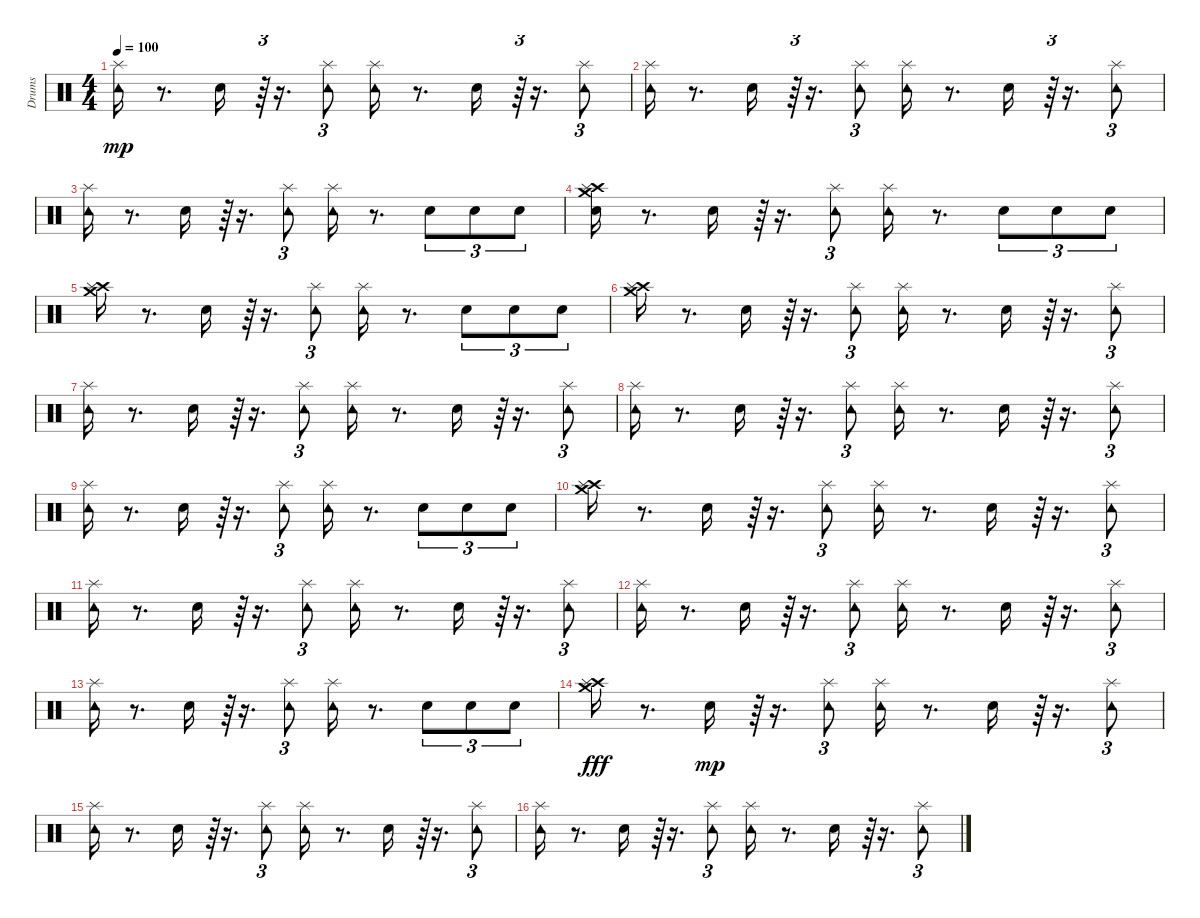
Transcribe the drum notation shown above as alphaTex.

\track ("Drums" "Drums") {instrument percussion}
\staff {score}
\articulation defaults
\ts (4 4)
\tempo 100
\clef neutral
\ks c
("Tambourine (hit)" "Splash (hit)").16{dy mp} r.8{d} "Snare (hit)".16 r.64{tu (3 2)} r.16{d} ("Splash (hit)" "Tambourine (hit)").8{tu (3 2)} ("Splash (hit)" "Tambourine (hit)").16 r.8{d} "Snare (hit)".16 r.64{tu (3 2)} r.16{d} ("Splash (hit)" "Tambourine (hit)").8{tu (3 2)} |
("Tambourine (hit)" "Splash (hit)").16 r.8{d} "Snare (hit)".16 r.64{tu (3 2)} r.16{d} ("Tambourine (hit)" "Splash (hit)").8{tu (3 2)} ("Splash (hit)" "Tambourine (hit)").16 r.8{d} "Snare (hit)".16 r.64{tu (3 2)} r.16{d} ("Splash (hit)" "Tambourine (hit)").8{tu (3 2)} |
("Tambourine (hit)" "Splash (hit)").16 r.8{d} "Snare (hit)".16 r.64{tu (3 2)} r.16{d} ("Splash (hit)" "Tambourine (hit)").8{tu (3 2)} ("Tambourine (hit)" "Splash (hit)").16 r.8{d} "Snare (hit)".8{tu (3 2)} "Snare (hit)".8{tu (3 2)} "Snare (hit)".8{tu (3 2)} |
("Crash high (hit)" "Crash medium (hit)" "Snare (hit)" "Splash (hit)").16 r.8{d} "Snare (hit)".16 r.64{tu (3 2)} r.16{d} ("Splash (hit)" "Tambourine (hit)").8{tu (3 2)} ("Splash (hit)" "Tambourine (hit)").16 r.8{d} "Snare (hit)".8{tu (3 2)} "Snare (hit)".8{tu (3 2)} "Snare (hit)".8{tu (3 2)} |
("Crash medium (hit)" "Crash high (hit)" "Splash (hit)").16 r.8{d} "Snare (hit)".16 r.64{tu (3 2)} r.16{d} ("Tambourine (hit)" "Splash (hit)").8{tu (3 2)} ("Splash (hit)" "Tambourine (hit)").16 r.8{d} "Snare (hit)".8{tu (3 2)} "Snare (hit)".8{tu (3 2)} "Snare (hit)".8{tu (3 2)} |
("Crash high (hit)" "Crash medium (hit)" "Splash (hit)").16 r.8{d} "Snare (hit)".16 r.64{tu (3 2)} r.16{d} ("Tambourine (hit)" "Splash (hit)").8{tu (3 2)} ("Splash (hit)" "Tambourine (hit)").16 r.8{d} "Snare (hit)".16 r.64{tu (3 2)} r.16{d} ("Tambourine (hit)" "Splash (hit)").8{tu (3 2)} |
("Tambourine (hit)" "Splash (hit)").16 r.8{d} "Snare (hit)".16 r.64{tu (3 2)} r.16{d} ("Splash (hit)" "Tambourine (hit)").8{tu (3 2)} ("Splash (hit)" "Tambourine (hit)").16 r.8{d} "Snare (hit)".16 r.64{tu (3 2)} r.16{d} ("Tambourine (hit)" "Splash (hit)").8{tu (3 2)} |
("Tambourine (hit)" "Splash (hit)").16 r.8{d} "Snare (hit)".16 r.64{tu (3 2)} r.16{d} ("Splash (hit)" "Tambourine (hit)").8{tu (3 2)} ("Tambourine (hit)" "Splash (hit)").16 r.8{d} "Snare (hit)".16 r.64{tu (3 2)} r.16{d} ("Splash (hit)" "Tambourine (hit)").8{tu (3 2)} |
("Tambourine (hit)" "Splash (hit)").16 r.8{d} "Snare (hit)".16 r.64{tu (3 2)} r.16{d} ("Tambourine (hit)" "Splash (hit)").8{tu (3 2)} ("Tambourine (hit)" "Splash (hit)").16 r.8{d} "Snare (hit)".8{tu (3 2)} "Snare (hit)".8{tu (3 2)} "Snare (hit)".8{tu (3 2)} |
("Crash high (hit)" "Crash medium (hit)" "Splash (hit)").16 r.8{d} "Snare (hit)".16 r.64{tu (3 2)} r.16{d} ("Tambourine (hit)" "Splash (hit)").8{tu (3 2)} ("Tambourine (hit)" "Splash (hit)").16 r.8{d} "Snare (hit)".16 r.64{tu (3 2)} r.16{d} ("Tambourine (hit)" "Splash (hit)").8{tu (3 2)} |
("Tambourine (hit)" "Splash (hit)").16 r.8{d} "Snare (hit)".16 r.64{tu (3 2)} r.16{d} ("Tambourine (hit)" "Splash (hit)").8{tu (3 2)} ("Splash (hit)" "Tambourine (hit)").16 r.8{d} "Snare (hit)".16 r.64{tu (3 2)} r.16{d} ("Splash (hit)" "Tambourine (hit)").8{tu (3 2)} |
("Splash (hit)" "Tambourine (hit)").16 r.8{d} "Snare (hit)".16 r.64{tu (3 2)} r.16{d} ("Tambourine (hit)" "Splash (hit)").8{tu (3 2)} ("Tambourine (hit)" "Splash (hit)").16 r.8{d} "Snare (hit)".16 r.64{tu (3 2)} r.16{d} ("Tambourine (hit)" "Splash (hit)").8{tu (3 2)} |
("Tambourine (hit)" "Splash (hit)").16 r.8{d} "Snare (hit)".16 r.64{tu (3 2)} r.16{d} ("Tambourine (hit)" "Splash (hit)").8{tu (3 2)} ("Splash (hit)" "Tambourine (hit)").16 r.8{d} "Snare (hit)".8{tu (3 2)} "Snare (hit)".8{tu (3 2)} "Snare (hit)".8{tu (3 2)} |
("Crash high (hit)" "Splash (hit)" "Crash medium (hit)").16{dy fff} r.8{d} "Snare (hit)".16{dy mp} r.64{tu (3 2)} r.16{d} ("Splash (hit)" "Tambourine (hit)").8{tu (3 2)} ("Tambourine (hit)" "Splash (hit)").16 r.8{d} "Snare (hit)".16 r.64{tu (3 2)} r.16{d} ("Tambourine (hit)" "Splash (hit)").8{tu (3 2)} |
("Splash (hit)" "Tambourine (hit)").16 r.8{d} "Snare (hit)".16 r.64{tu (3 2)} r.16{d} ("Splash (hit)" "Tambourine (hit)").8{tu (3 2)} ("Tambourine (hit)" "Splash (hit)").16 r.8{d} "Snare (hit)".16 r.64{tu (3 2)} r.16{d} ("Tambourine (hit)" "Splash (hit)").8{tu (3 2)} |
("Tambourine (hit)" "Splash (hit)").16 r.8{d} "Snare (hit)".16 r.64{tu (3 2)} r.16{d} ("Tambourine (hit)" "Splash (hit)").8{tu (3 2)} ("Splash (hit)" "Tambourine (hit)").16 r.8{d} "Snare (hit)".16 r.64{tu (3 2)} r.16{d} ("Splash (hit)" "Tambourine (hit)").8{tu (3 2)}
